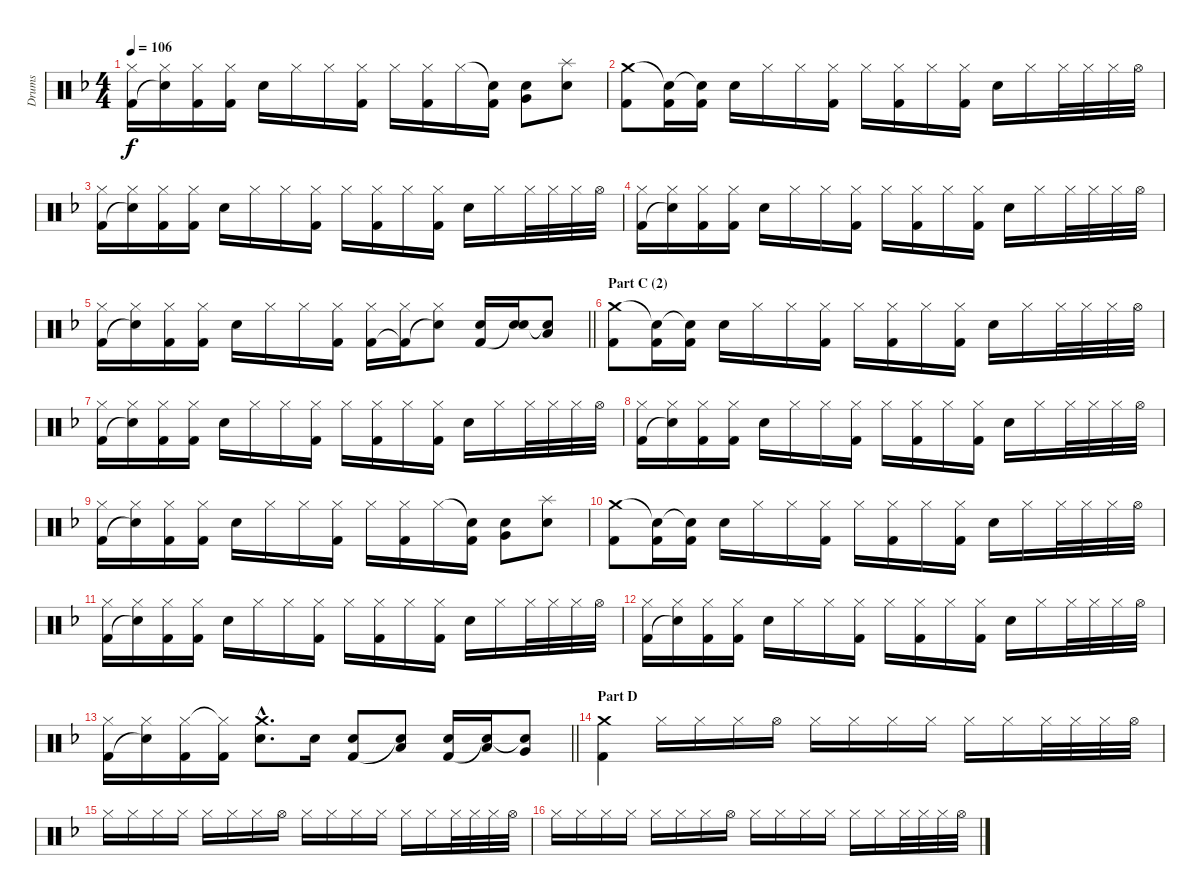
\track ("Drums" "Drums") {instrument percussion}
\staff {score}
\articulation defaults
\ts (4 4)
\tempo 106
\clef neutral
\ks f
("Hi-Hat (closed)" "Kick (hit) 2").16{dy f} ("Hi-Hat (closed)" "Snare (hit)"{t}).16 ("Hi-Hat (closed)" "Kick (hit) 2").16 ("Hi-Hat (closed)" "Kick (hit) 2").16 "Electric Snare (hit)".16 "Hi-Hat (closed)".16 "Hi-Hat (closed)".16 ("Hi-Hat (closed)" "Kick (hit) 2").16 "Hi-Hat (closed)".16 ("Hi-Hat (closed)" "Kick (hit) 2").16 "Hi-Hat (closed)".16 ("Snare (hit)"{t} "Kick (hit) 2").16 ("Electric Snare (hit)" "Very Low Tom (hit)").8 ("Splash (hit)" "Electric Snare (hit)").8 |
("Crash medium (hit)" "Kick (hit) 2").8 ("Snare (hit)"{t} "Kick (hit) 2").16 ("Snare (hit)"{t} "Kick (hit) 2").16 "Electric Snare (hit)".16 "Hi-Hat (closed)".16 "Hi-Hat (closed)".16 ("Hi-Hat (closed)" "Kick (hit) 2").16 "Hi-Hat (closed)".16 ("Hi-Hat (closed)" "Kick (hit) 2").16 "Hi-Hat (closed)".16 ("Hi-Hat (closed)" "Kick (hit) 2").16 "Electric Snare (hit)".16 "Hi-Hat (closed)".16 "Hi-Hat (closed)".32 "Hi-Hat (closed)".32 "Hi-Hat (closed)".32 "Hi-Hat (open)".32 |
("Hi-Hat (closed)" "Kick (hit) 2").16 ("Hi-Hat (closed)" "Snare (hit)"{t}).16 ("Hi-Hat (closed)" "Kick (hit) 2").16 ("Hi-Hat (closed)" "Kick (hit) 2").16 "Electric Snare (hit)".16 "Hi-Hat (closed)".16 "Hi-Hat (closed)".16 ("Hi-Hat (closed)" "Kick (hit) 2").16 "Hi-Hat (closed)".16 ("Hi-Hat (closed)" "Kick (hit) 2").16 "Hi-Hat (closed)".16 ("Hi-Hat (closed)" "Kick (hit) 2").16 "Electric Snare (hit)".16 "Hi-Hat (closed)".16 "Hi-Hat (closed)".32 "Hi-Hat (closed)".32 "Hi-Hat (closed)".32 "Hi-Hat (open)".32 |
("Hi-Hat (closed)" "Kick (hit) 2").16 ("Hi-Hat (closed)" "Snare (hit)"{t}).16 ("Hi-Hat (closed)" "Kick (hit) 2").16 ("Hi-Hat (closed)" "Kick (hit) 2").16 "Electric Snare (hit)".16 "Hi-Hat (closed)".16 "Hi-Hat (closed)".16 ("Hi-Hat (closed)" "Kick (hit) 2").16 "Hi-Hat (closed)".16 ("Hi-Hat (closed)" "Kick (hit) 2").16 "Hi-Hat (closed)".16 ("Hi-Hat (closed)" "Kick (hit) 2").16 "Electric Snare (hit)".16 "Hi-Hat (closed)".16 "Hi-Hat (closed)".32 "Hi-Hat (closed)".32 "Hi-Hat (closed)".32 "Hi-Hat (open)".32 |
\barLineRight lightlight
("Hi-Hat (closed)" "Kick (hit) 2").16 ("Hi-Hat (closed)" "Snare (hit)"{t}).16 ("Hi-Hat (closed)" "Kick (hit) 2").16 ("Hi-Hat (closed)" "Kick (hit) 2").16 "Electric Snare (hit)".16 "Hi-Hat (closed)".16 "Hi-Hat (closed)".16 ("Hi-Hat (closed)" "Kick (hit) 2").16 ("Hi-Hat (closed)" "Kick (hit) 2").16 ("Hi-Hat (closed)" "Kick (hit) 2"{t}).16 ("Hi-Hat (closed)" "Snare (hit)"{t}).8 ("Electric Snare (hit)" "Kick (hit) 2").16 ("Electric Snare (hit)" "Snare (hit)"{t}).16 ("Low Tom (hit)" "Snare (hit)"{t}).8 |
\section ("" "Part C (2)")
("Crash medium (hit)" "Kick (hit) 2").8 ("Snare (hit)"{t} "Kick (hit) 2").16 ("Snare (hit)"{t} "Kick (hit) 2").16 "Electric Snare (hit)".16 "Hi-Hat (closed)".16 "Hi-Hat (closed)".16 ("Hi-Hat (closed)" "Kick (hit) 2").16 "Hi-Hat (closed)".16 ("Hi-Hat (closed)" "Kick (hit) 2").16 "Hi-Hat (closed)".16 ("Hi-Hat (closed)" "Kick (hit) 2").16 "Electric Snare (hit)".16 "Hi-Hat (closed)".16 "Hi-Hat (closed)".32 "Hi-Hat (closed)".32 "Hi-Hat (closed)".32 "Hi-Hat (open)".32 |
("Hi-Hat (closed)" "Kick (hit) 2").16 ("Hi-Hat (closed)" "Snare (hit)"{t}).16 ("Hi-Hat (closed)" "Kick (hit) 2").16 ("Hi-Hat (closed)" "Kick (hit) 2").16 "Electric Snare (hit)".16 "Hi-Hat (closed)".16 "Hi-Hat (closed)".16 ("Hi-Hat (closed)" "Kick (hit) 2").16 "Hi-Hat (closed)".16 ("Hi-Hat (closed)" "Kick (hit) 2").16 "Hi-Hat (closed)".16 ("Hi-Hat (closed)" "Kick (hit) 2").16 "Electric Snare (hit)".16 "Hi-Hat (closed)".16 "Hi-Hat (closed)".32 "Hi-Hat (closed)".32 "Hi-Hat (closed)".32 "Hi-Hat (open)".32 |
("Hi-Hat (closed)" "Kick (hit) 2").16 ("Hi-Hat (closed)" "Snare (hit)"{t}).16 ("Hi-Hat (closed)" "Kick (hit) 2").16 ("Hi-Hat (closed)" "Kick (hit) 2").16 "Electric Snare (hit)".16 "Hi-Hat (closed)".16 "Hi-Hat (closed)".16 ("Hi-Hat (closed)" "Kick (hit) 2").16 "Hi-Hat (closed)".16 ("Hi-Hat (closed)" "Kick (hit) 2").16 "Hi-Hat (closed)".16 ("Hi-Hat (closed)" "Kick (hit) 2").16 "Electric Snare (hit)".16 "Hi-Hat (closed)".16 "Hi-Hat (closed)".32 "Hi-Hat (closed)".32 "Hi-Hat (closed)".32 "Hi-Hat (open)".32 |
("Hi-Hat (closed)" "Kick (hit) 2").16 ("Hi-Hat (closed)" "Snare (hit)"{t}).16 ("Hi-Hat (closed)" "Kick (hit) 2").16 ("Hi-Hat (closed)" "Kick (hit) 2").16 "Electric Snare (hit)".16 "Hi-Hat (closed)".16 "Hi-Hat (closed)".16 ("Hi-Hat (closed)" "Kick (hit) 2").16 "Hi-Hat (closed)".16 ("Hi-Hat (closed)" "Kick (hit) 2").16 "Hi-Hat (closed)".16 ("Snare (hit)"{t} "Kick (hit) 2").16 ("Electric Snare (hit)" "Very Low Tom (hit)").8 ("Splash (hit)" "Electric Snare (hit)").8 |
("Crash medium (hit)" "Kick (hit) 2").8 ("Snare (hit)"{t} "Kick (hit) 2").16 ("Snare (hit)"{t} "Kick (hit) 2").16 "Electric Snare (hit)".16 "Hi-Hat (closed)".16 "Hi-Hat (closed)".16 ("Hi-Hat (closed)" "Kick (hit) 2").16 "Hi-Hat (closed)".16 ("Hi-Hat (closed)" "Kick (hit) 2").16 "Hi-Hat (closed)".16 ("Hi-Hat (closed)" "Kick (hit) 2").16 "Electric Snare (hit)".16 "Hi-Hat (closed)".16 "Hi-Hat (closed)".32 "Hi-Hat (closed)".32 "Hi-Hat (closed)".32 "Hi-Hat (open)".32 |
("Hi-Hat (closed)" "Kick (hit) 2").16 ("Hi-Hat (closed)" "Snare (hit)"{t}).16 ("Hi-Hat (closed)" "Kick (hit) 2").16 ("Hi-Hat (closed)" "Kick (hit) 2").16 "Electric Snare (hit)".16 "Hi-Hat (closed)".16 "Hi-Hat (closed)".16 ("Hi-Hat (closed)" "Kick (hit) 2").16 "Hi-Hat (closed)".16 ("Hi-Hat (closed)" "Kick (hit) 2").16 "Hi-Hat (closed)".16 ("Hi-Hat (closed)" "Kick (hit) 2").16 "Electric Snare (hit)".16 "Hi-Hat (closed)".16 "Hi-Hat (closed)".32 "Hi-Hat (closed)".32 "Hi-Hat (closed)".32 "Hi-Hat (open)".32 |
("Hi-Hat (closed)" "Kick (hit) 2").16 ("Hi-Hat (closed)" "Snare (hit)"{t}).16 ("Hi-Hat (closed)" "Kick (hit) 2").16 ("Hi-Hat (closed)" "Kick (hit) 2").16 "Electric Snare (hit)".16 "Hi-Hat (closed)".16 "Hi-Hat (closed)".16 ("Hi-Hat (closed)" "Kick (hit) 2").16 "Hi-Hat (closed)".16 ("Hi-Hat (closed)" "Kick (hit) 2").16 "Hi-Hat (closed)".16 ("Hi-Hat (closed)" "Kick (hit) 2").16 "Electric Snare (hit)".16 "Hi-Hat (closed)".16 "Hi-Hat (closed)".32 "Hi-Hat (closed)".32 "Hi-Hat (closed)".32 "Hi-Hat (open)".32 |
\barLineRight lightlight
("Hi-Hat (closed)" "Kick (hit) 2").16 ("Hi-Hat (closed)" "Snare (hit)"{t}).16 ("Hi-Hat (closed)" "Kick (hit) 2").16 ("Hi-Hat (closed)"{t} "Kick (hit) 2").16 ("Crash medium (hit)"{hac} "Electric Snare (hit)"{hac}).8{d} "Electric Snare (hit)".16 ("Electric Snare (hit)" "Kick (hit) 2").8 ("Low Tom (hit)" "Snare (hit)"{t}).8 ("Electric Snare (hit)" "Kick (hit) 2").16 ("Low Tom (hit)" "Snare (hit)"{t}).16 ("Very Low Tom (hit)" "Snare (hit)"{t}).8 |
\section ("" "Part D")
("Crash medium (hit)" "Kick (hit) 2").4 "Hi-Hat (closed)".16 "Hi-Hat (closed)".16 "Hi-Hat (closed)".16 "Hi-Hat (open)".16 "Hi-Hat (closed)".16 "Hi-Hat (closed)".16 "Hi-Hat (closed)".16 "Hi-Hat (closed)".16 "Hi-Hat (closed)".16 "Hi-Hat (closed)".16 "Hi-Hat (closed)".32 "Hi-Hat (closed)".32 "Hi-Hat (closed)".32 "Hi-Hat (open)".32 |
"Hi-Hat (closed)".16 "Hi-Hat (closed)".16 "Hi-Hat (closed)".16 "Hi-Hat (closed)".16 "Hi-Hat (closed)".16 "Hi-Hat (closed)".16 "Hi-Hat (closed)".16 "Hi-Hat (open)".16 "Hi-Hat (closed)".16 "Hi-Hat (closed)".16 "Hi-Hat (closed)".16 "Hi-Hat (closed)".16 "Hi-Hat (closed)".16 "Hi-Hat (closed)".16 "Hi-Hat (closed)".32 "Hi-Hat (closed)".32 "Hi-Hat (closed)".32 "Hi-Hat (open)".32 |
"Hi-Hat (closed)".16 "Hi-Hat (closed)".16 "Hi-Hat (closed)".16 "Hi-Hat (closed)".16 "Hi-Hat (closed)".16 "Hi-Hat (closed)".16 "Hi-Hat (closed)".16 "Hi-Hat (open)".16 "Hi-Hat (closed)".16 "Hi-Hat (closed)".16 "Hi-Hat (closed)".16 "Hi-Hat (closed)".16 "Hi-Hat (closed)".16 "Hi-Hat (closed)".16 "Hi-Hat (closed)".32 "Hi-Hat (closed)".32 "Hi-Hat (closed)".32 "Hi-Hat (open)".32
